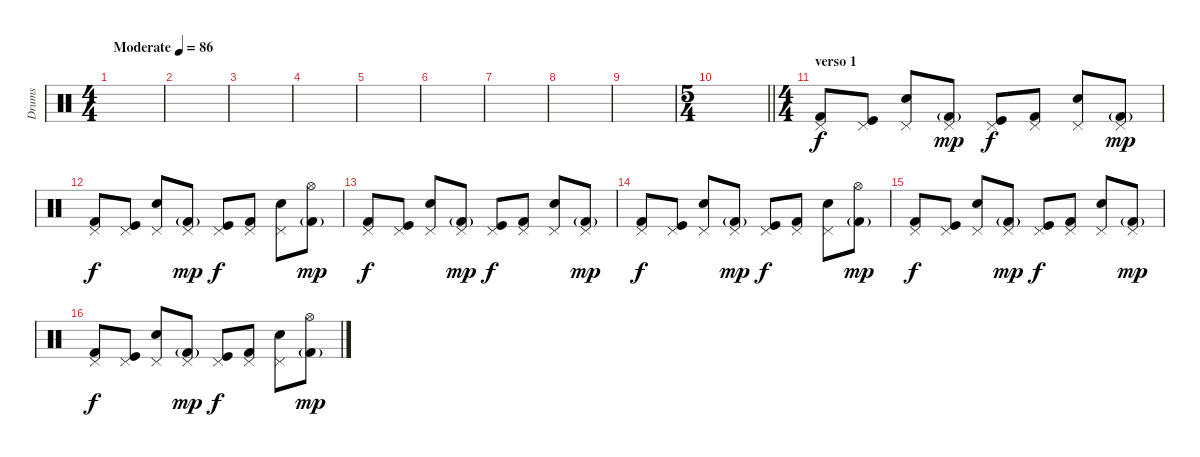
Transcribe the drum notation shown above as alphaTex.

\track ("Drums" "Drums") {instrument percussion}
\staff {score}
\articulation defaults
\ts (4 4)
\tempo (86 "Moderate")
\clef neutral
\ks c
|
|
|
|
|
|
|
|
|
\ts (5 4)
\barLineRight lightlight
|
\ts (4 4)
\section ("" "verso 1")
("Kick (hit) 2" "Pedal Hi-Hat (hit)").8 ("Kick (hit)" "Pedal Hi-Hat (hit)").8 ("Snare (hit) 2" "Pedal Hi-Hat (hit)").8 ("Kick (hit) 2"{g} "Pedal Hi-Hat (hit)").8{dy mp} ("Kick (hit)" "Pedal Hi-Hat (hit)").8{dy f} ("Kick (hit) 2" "Pedal Hi-Hat (hit)").8 ("Snare (hit) 2" "Pedal Hi-Hat (hit)").8 ("Kick (hit) 2"{g} "Pedal Hi-Hat (hit)").8{dy mp} |
("Kick (hit) 2" "Pedal Hi-Hat (hit)").8{dy f} ("Kick (hit)" "Pedal Hi-Hat (hit)").8 ("Snare (hit) 2" "Pedal Hi-Hat (hit)").8 ("Kick (hit) 2"{g} "Pedal Hi-Hat (hit)").8{dy mp} ("Kick (hit)" "Pedal Hi-Hat (hit)").8{dy f} ("Kick (hit) 2" "Pedal Hi-Hat (hit)").8 ("Snare (hit) 2" "Pedal Hi-Hat (hit)").8 ("Kick (hit) 2"{g} "Hi-Hat (open)").8{dy mp} |
("Kick (hit) 2" "Pedal Hi-Hat (hit)").8{dy f} ("Kick (hit)" "Pedal Hi-Hat (hit)").8 ("Snare (hit) 2" "Pedal Hi-Hat (hit)").8 ("Kick (hit) 2"{g} "Pedal Hi-Hat (hit)").8{dy mp} ("Kick (hit)" "Pedal Hi-Hat (hit)").8{dy f} ("Kick (hit) 2" "Pedal Hi-Hat (hit)").8 ("Snare (hit) 2" "Pedal Hi-Hat (hit)").8 ("Kick (hit) 2"{g} "Pedal Hi-Hat (hit)").8{dy mp} |
("Kick (hit) 2" "Pedal Hi-Hat (hit)").8{dy f} ("Kick (hit)" "Pedal Hi-Hat (hit)").8 ("Snare (hit) 2" "Pedal Hi-Hat (hit)").8 ("Kick (hit) 2"{g} "Pedal Hi-Hat (hit)").8{dy mp} ("Kick (hit)" "Pedal Hi-Hat (hit)").8{dy f} ("Kick (hit) 2" "Pedal Hi-Hat (hit)").8 ("Snare (hit) 2" "Pedal Hi-Hat (hit)").8 ("Kick (hit) 2"{g} "Hi-Hat (open)").8{dy mp} |
("Kick (hit) 2" "Pedal Hi-Hat (hit)").8{dy f} ("Kick (hit)" "Pedal Hi-Hat (hit)").8 ("Snare (hit) 2" "Pedal Hi-Hat (hit)").8 ("Kick (hit) 2"{g} "Pedal Hi-Hat (hit)").8{dy mp} ("Kick (hit)" "Pedal Hi-Hat (hit)").8{dy f} ("Kick (hit) 2" "Pedal Hi-Hat (hit)").8 ("Snare (hit) 2" "Pedal Hi-Hat (hit)").8 ("Kick (hit) 2"{g} "Pedal Hi-Hat (hit)").8{dy mp} |
("Kick (hit) 2" "Pedal Hi-Hat (hit)").8{dy f} ("Kick (hit)" "Pedal Hi-Hat (hit)").8 ("Snare (hit) 2" "Pedal Hi-Hat (hit)").8 ("Kick (hit) 2"{g} "Pedal Hi-Hat (hit)").8{dy mp} ("Kick (hit)" "Pedal Hi-Hat (hit)").8{dy f} ("Kick (hit) 2" "Pedal Hi-Hat (hit)").8 ("Snare (hit) 2" "Pedal Hi-Hat (hit)").8 ("Kick (hit) 2"{g} "Hi-Hat (open)").8{dy mp}
